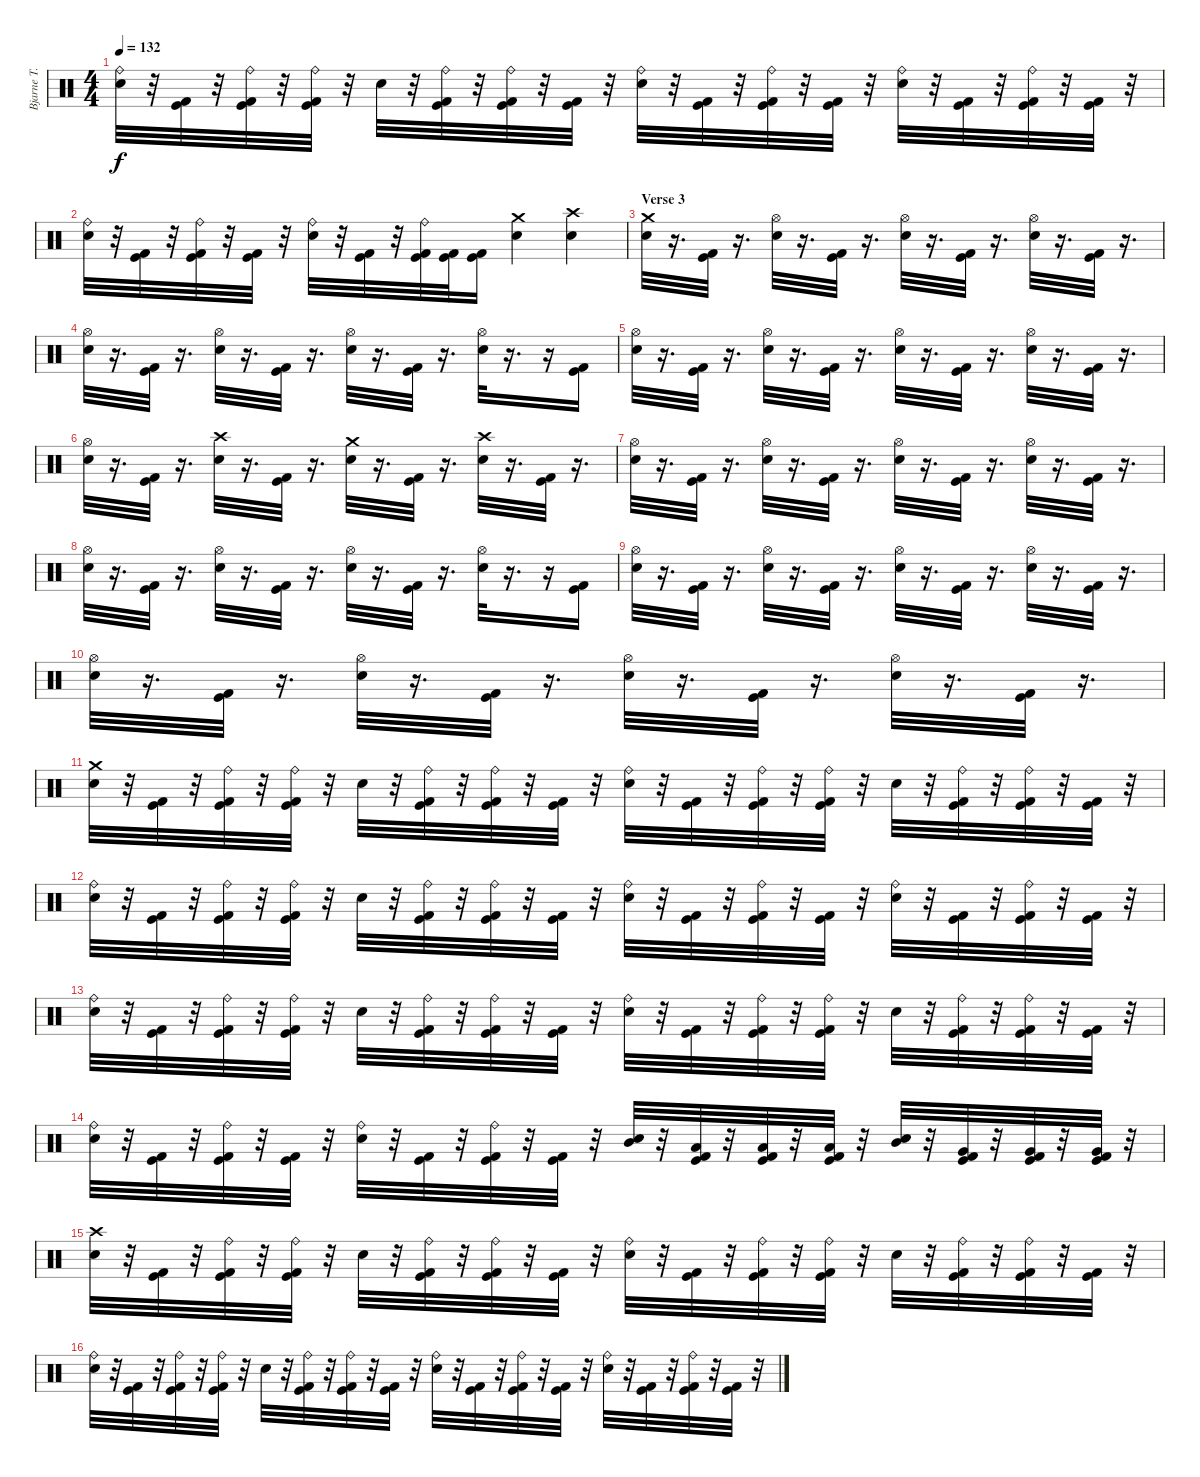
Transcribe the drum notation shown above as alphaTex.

\track ("Bjarne T. Holme" "Bjarne T. ") {instrument percussion}
\staff {score}
\articulation defaults
\ts (4 4)
\tempo 132
\clef neutral
\ks c
("Ride (bell)" "Snare (hit) 2").32{dy f} r.32 ("Kick (hit)" "Kick (hit) 2").32 r.32 ("Ride (bell)" "Kick (hit)" "Kick (hit) 2").32 r.32 ("Ride (bell)" "Kick (hit)" "Kick (hit) 2").32 r.32 "Snare (hit) 2".32 r.32 ("Ride (bell)" "Kick (hit)" "Kick (hit) 2").32 r.32 ("Ride (bell)" "Kick (hit)" "Kick (hit) 2").32 r.32 ("Kick (hit)" "Kick (hit) 2").32 r.32 ("Ride (bell)" "Snare (hit) 2").32 r.32 ("Kick (hit)" "Kick (hit) 2").32 r.32 ("Ride (bell)" "Kick (hit)" "Kick (hit) 2").32 r.32 ("Kick (hit)" "Kick (hit) 2").32 r.32 ("Ride (bell)" "Snare (hit) 2").32 r.32 ("Kick (hit)" "Kick (hit) 2").32 r.32 ("Ride (bell)" "Kick (hit)" "Kick (hit) 2").32 r.32 ("Kick (hit)" "Kick (hit) 2").32 r.32 |
("Ride (bell)" "Snare (hit) 2").32 r.32 ("Kick (hit)" "Kick (hit) 2").32 r.32 ("Ride (bell)" "Kick (hit)" "Kick (hit) 2").32 r.32 ("Kick (hit)" "Kick (hit) 2").32 r.32 ("Ride (bell)" "Snare (hit) 2").32 r.32 ("Kick (hit)" "Kick (hit) 2").32 r.32 ("Ride (bell)" "Kick (hit)" "Kick (hit) 2").32 ("Kick (hit)" "Kick (hit) 2").32 ("Kick (hit)" "Kick (hit) 2").16 ("Crash medium (hit)" "Snare (hit) 2").4 ("Crash high (hit)" "Snare (hit) 2").4 |
\section ("" "Verse 3")
("Crash medium (hit)" "Snare (hit) 2").32 r.16{d} ("Kick (hit)" "Kick (hit) 2").32 r.16{d} ("Hi-Hat (open)" "Snare (hit) 2").32 r.16{d} ("Kick (hit)" "Kick (hit) 2").32 r.16{d} ("Hi-Hat (open)" "Snare (hit) 2").32 r.16{d} ("Kick (hit)" "Kick (hit) 2").32 r.16{d} ("Hi-Hat (open)" "Snare (hit) 2").32 r.16{d} ("Kick (hit)" "Kick (hit) 2").32 r.16{d} |
("Hi-Hat (open)" "Snare (hit) 2").32 r.16{d} ("Kick (hit)" "Kick (hit) 2").32 r.16{d} ("Hi-Hat (open)" "Snare (hit) 2").32 r.16{d} ("Kick (hit)" "Kick (hit) 2").32 r.16{d} ("Hi-Hat (open)" "Snare (hit) 2").32 r.16{d} ("Kick (hit)" "Kick (hit) 2").32 r.16{d} ("Hi-Hat (open)" "Snare (hit) 2").32 r.16{d} r.16 ("Kick (hit)" "Kick (hit) 2").16 |
("Hi-Hat (open)" "Snare (hit) 2").32 r.16{d} ("Kick (hit)" "Kick (hit) 2").32 r.16{d} ("Hi-Hat (open)" "Snare (hit) 2").32 r.16{d} ("Kick (hit)" "Kick (hit) 2").32 r.16{d} ("Hi-Hat (open)" "Snare (hit) 2").32 r.16{d} ("Kick (hit)" "Kick (hit) 2").32 r.16{d} ("Hi-Hat (open)" "Snare (hit) 2").32 r.16{d} ("Kick (hit)" "Kick (hit) 2").32 r.16{d} |
("Hi-Hat (open)" "Snare (hit) 2").32 r.16{d} ("Kick (hit)" "Kick (hit) 2").32 r.16{d} ("Crash high (hit)" "Snare (hit) 2").32 r.16{d} ("Kick (hit)" "Kick (hit) 2").32 r.16{d} ("Crash medium (hit)" "Snare (hit) 2").32 r.16{d} ("Kick (hit)" "Kick (hit) 2").32 r.16{d} ("Crash high (hit)" "Snare (hit) 2").32 r.16{d} ("Kick (hit)" "Kick (hit) 2").32 r.16{d} |
("Hi-Hat (open)" "Snare (hit) 2").32 r.16{d} ("Kick (hit)" "Kick (hit) 2").32 r.16{d} ("Hi-Hat (open)" "Snare (hit) 2").32 r.16{d} ("Kick (hit)" "Kick (hit) 2").32 r.16{d} ("Hi-Hat (open)" "Snare (hit) 2").32 r.16{d} ("Kick (hit)" "Kick (hit) 2").32 r.16{d} ("Hi-Hat (open)" "Snare (hit) 2").32 r.16{d} ("Kick (hit)" "Kick (hit) 2").32 r.16{d} |
("Hi-Hat (open)" "Snare (hit) 2").32 r.16{d} ("Kick (hit)" "Kick (hit) 2").32 r.16{d} ("Hi-Hat (open)" "Snare (hit) 2").32 r.16{d} ("Kick (hit)" "Kick (hit) 2").32 r.16{d} ("Hi-Hat (open)" "Snare (hit) 2").32 r.16{d} ("Kick (hit)" "Kick (hit) 2").32 r.16{d} ("Hi-Hat (open)" "Snare (hit) 2").32 r.16{d} r.16 ("Kick (hit)" "Kick (hit) 2").16 |
("Hi-Hat (open)" "Snare (hit) 2").32 r.16{d} ("Kick (hit)" "Kick (hit) 2").32 r.16{d} ("Hi-Hat (open)" "Snare (hit) 2").32 r.16{d} ("Kick (hit)" "Kick (hit) 2").32 r.16{d} ("Hi-Hat (open)" "Snare (hit) 2").32 r.16{d} ("Kick (hit)" "Kick (hit) 2").32 r.16{d} ("Hi-Hat (open)" "Snare (hit) 2").32 r.16{d} ("Kick (hit)" "Kick (hit) 2").32 r.16{d} |
("Hi-Hat (open)" "Snare (hit) 2").32 r.16{d} ("Kick (hit)" "Kick (hit) 2").32 r.16{d} ("Hi-Hat (open)" "Snare (hit) 2").32 r.16{d} ("Kick (hit)" "Kick (hit) 2").32 r.16{d} ("Hi-Hat (open)" "Snare (hit) 2").32 r.16{d} ("Kick (hit)" "Kick (hit) 2").32 r.16{d} ("Hi-Hat (open)" "Snare (hit) 2").32 r.16{d} ("Kick (hit)" "Kick (hit) 2").32 r.16{d} |
("Crash medium (hit)" "Snare (hit) 2").32 r.32 ("Kick (hit)" "Kick (hit) 2").32 r.32 ("Ride (bell)" "Kick (hit)" "Kick (hit) 2").32 r.32 ("Ride (bell)" "Kick (hit)" "Kick (hit) 2").32 r.32 "Snare (hit) 2".32 r.32 ("Ride (bell)" "Kick (hit)" "Kick (hit) 2").32 r.32 ("Ride (bell)" "Kick (hit)" "Kick (hit) 2").32 r.32 ("Kick (hit)" "Kick (hit) 2").32 r.32 ("Ride (bell)" "Snare (hit) 2").32 r.32 ("Kick (hit)" "Kick (hit) 2").32 r.32 ("Ride (bell)" "Kick (hit)" "Kick (hit) 2").32 r.32 ("Ride (bell)" "Kick (hit)" "Kick (hit) 2").32 r.32 "Snare (hit) 2".32 r.32 ("Ride (bell)" "Kick (hit)" "Kick (hit) 2").32 r.32 ("Ride (bell)" "Kick (hit)" "Kick (hit) 2").32 r.32 ("Kick (hit)" "Kick (hit) 2").32 r.32 |
("Ride (bell)" "Snare (hit) 2").32 r.32 ("Kick (hit)" "Kick (hit) 2").32 r.32 ("Ride (bell)" "Kick (hit)" "Kick (hit) 2").32 r.32 ("Ride (bell)" "Kick (hit)" "Kick (hit) 2").32 r.32 "Snare (hit) 2".32 r.32 ("Ride (bell)" "Kick (hit)" "Kick (hit) 2").32 r.32 ("Ride (bell)" "Kick (hit)" "Kick (hit) 2").32 r.32 ("Kick (hit)" "Kick (hit) 2").32 r.32 ("Ride (bell)" "Snare (hit) 2").32 r.32 ("Kick (hit)" "Kick (hit) 2").32 r.32 ("Ride (bell)" "Kick (hit)" "Kick (hit) 2").32 r.32 ("Kick (hit)" "Kick (hit) 2").32 r.32 ("Ride (bell)" "Snare (hit) 2").32 r.32 ("Kick (hit)" "Kick (hit) 2").32 r.32 ("Ride (bell)" "Kick (hit)" "Kick (hit) 2").32 r.32 ("Kick (hit)" "Kick (hit) 2").32 r.32 |
("Ride (bell)" "Snare (hit) 2").32 r.32 ("Kick (hit)" "Kick (hit) 2").32 r.32 ("Ride (bell)" "Kick (hit)" "Kick (hit) 2").32 r.32 ("Ride (bell)" "Kick (hit)" "Kick (hit) 2").32 r.32 "Snare (hit) 2".32 r.32 ("Ride (bell)" "Kick (hit)" "Kick (hit) 2").32 r.32 ("Ride (bell)" "Kick (hit)" "Kick (hit) 2").32 r.32 ("Kick (hit)" "Kick (hit) 2").32 r.32 ("Ride (bell)" "Snare (hit) 2").32 r.32 ("Kick (hit)" "Kick (hit) 2").32 r.32 ("Ride (bell)" "Kick (hit)" "Kick (hit) 2").32 r.32 ("Ride (bell)" "Kick (hit)" "Kick (hit) 2").32 r.32 "Snare (hit) 2".32 r.32 ("Ride (bell)" "Kick (hit)" "Kick (hit) 2").32 r.32 ("Ride (bell)" "Kick (hit)" "Kick (hit) 2").32 r.32 ("Kick (hit)" "Kick (hit) 2").32 r.32 |
("Ride (bell)" "Snare (hit) 2").32 r.32 ("Kick (hit)" "Kick (hit) 2").32 r.32 ("Ride (bell)" "Kick (hit)" "Kick (hit) 2").32 r.32 ("Kick (hit)" "Kick (hit) 2").32 r.32 ("Ride (bell)" "Snare (hit) 2").32 r.32 ("Kick (hit)" "Kick (hit) 2").32 r.32 ("Ride (bell)" "Kick (hit)" "Kick (hit) 2").32 r.32 ("Kick (hit)" "Kick (hit) 2").32 r.32 ("Mid Tom (hit)" "Snare (hit) 2").32 r.32 ("Low Tom (hit)" "Kick (hit)" "Kick (hit) 2").32 r.32 ("Low Tom (hit)" "Kick (hit)" "Kick (hit) 2").32 r.32 ("Low Tom (hit)" "Kick (hit)" "Kick (hit) 2").32 r.32 ("Mid Tom (hit)" "Snare (hit) 2").32 r.32 ("Very Low Tom (hit)" "Kick (hit)" "Kick (hit) 2").32 r.32 ("Very Low Tom (hit)" "Kick (hit)" "Kick (hit) 2").32 r.32 ("Very Low Tom (hit)" "Kick (hit)" "Kick (hit) 2").32 r.32 |
("Crash high (hit)" "Snare (hit) 2").32 r.32 ("Kick (hit)" "Kick (hit) 2").32 r.32 ("Ride (bell)" "Kick (hit)" "Kick (hit) 2").32 r.32 ("Ride (bell)" "Kick (hit)" "Kick (hit) 2").32 r.32 "Snare (hit) 2".32 r.32 ("Ride (bell)" "Kick (hit)" "Kick (hit) 2").32 r.32 ("Ride (bell)" "Kick (hit)" "Kick (hit) 2").32 r.32 ("Kick (hit)" "Kick (hit) 2").32 r.32 ("Ride (bell)" "Snare (hit) 2").32 r.32 ("Kick (hit)" "Kick (hit) 2").32 r.32 ("Ride (bell)" "Kick (hit)" "Kick (hit) 2").32 r.32 ("Ride (bell)" "Kick (hit)" "Kick (hit) 2").32 r.32 "Snare (hit) 2".32 r.32 ("Ride (bell)" "Kick (hit)" "Kick (hit) 2").32 r.32 ("Ride (bell)" "Kick (hit)" "Kick (hit) 2").32 r.32 ("Kick (hit)" "Kick (hit) 2").32 r.32 |
("Ride (bell)" "Snare (hit) 2").32 r.32 ("Kick (hit)" "Kick (hit) 2").32 r.32 ("Ride (bell)" "Kick (hit)" "Kick (hit) 2").32 r.32 ("Ride (bell)" "Kick (hit)" "Kick (hit) 2").32 r.32 "Snare (hit) 2".32 r.32 ("Ride (bell)" "Kick (hit)" "Kick (hit) 2").32 r.32 ("Ride (bell)" "Kick (hit)" "Kick (hit) 2").32 r.32 ("Kick (hit)" "Kick (hit) 2").32 r.32 ("Ride (bell)" "Snare (hit) 2").32 r.32 ("Kick (hit)" "Kick (hit) 2").32 r.32 ("Ride (bell)" "Kick (hit)" "Kick (hit) 2").32 r.32 ("Kick (hit)" "Kick (hit) 2").32 r.32 ("Ride (bell)" "Snare (hit) 2").32 r.32 ("Kick (hit)" "Kick (hit) 2").32 r.32 ("Ride (bell)" "Kick (hit)" "Kick (hit) 2").32 r.32 ("Kick (hit)" "Kick (hit) 2").32 r.32
